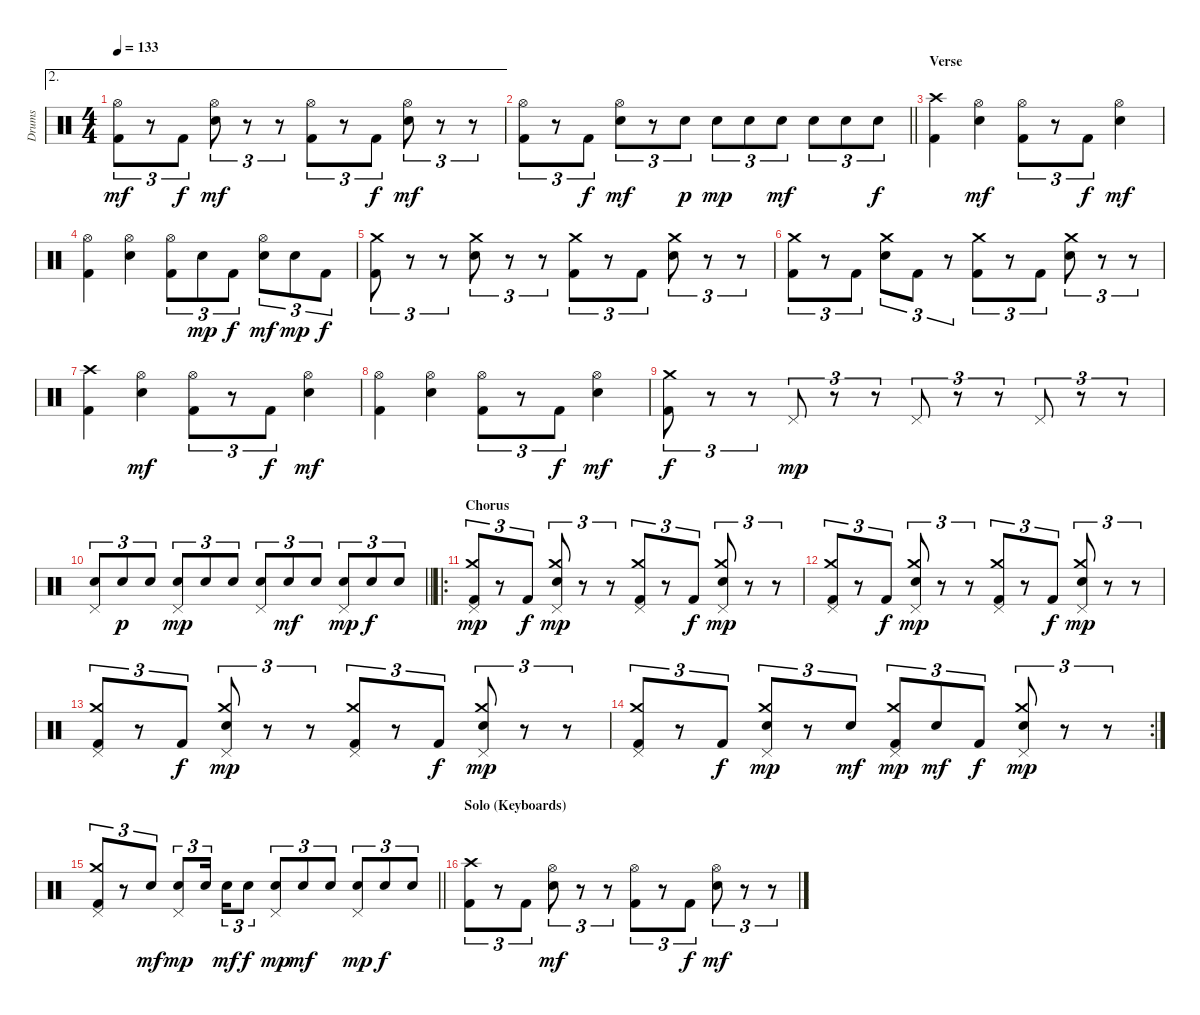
\track ("Drums" "Drums") {instrument percussion}
\staff {score}
\articulation defaults
\ae 2
\ts (4 4)
\tempo 133
\clef neutral
\ks c
("Hi-Hat (open)" "Kick (hit) 2").8{tu (3 2) dy mf} r.8{tu (3 2)} "Kick (hit) 2".8{tu (3 2) dy f} ("Hi-Hat (open)" "Electric Snare (hit)").8{tu (3 2) dy mf} r.8{tu (3 2)} r.8{tu (3 2)} ("Hi-Hat (open)" "Kick (hit) 2").8{tu (3 2)} r.8{tu (3 2)} "Kick (hit) 2".8{tu (3 2) dy f} ("Hi-Hat (open)" "Electric Snare (hit)").8{tu (3 2) dy mf} r.8{tu (3 2)} r.8{tu (3 2)} |
\barLineRight lightlight
("Hi-Hat (open)" "Kick (hit) 2").8{tu (3 2)} r.8{tu (3 2)} "Kick (hit) 2".8{tu (3 2) dy f} ("Hi-Hat (open)" "Electric Snare (hit)").8{tu (3 2) dy mf} r.8{tu (3 2)} "Electric Snare (hit)".8{tu (3 2) dy p} "Electric Snare (hit)".8{tu (3 2) dy mp} "Electric Snare (hit)".8{tu (3 2)} "Electric Snare (hit)".8{tu (3 2) dy mf} "Electric Snare (hit)".8{tu (3 2)} "Electric Snare (hit)".8{tu (3 2)} "Electric Snare (hit)".8{tu (3 2) dy f} |
\section ("" "Verse")
("Crash high (hit)" "Kick (hit) 2").4 ("Hi-Hat (open)" "Electric Snare (hit)").4{dy mf} ("Hi-Hat (open)" "Kick (hit) 2").8{tu (3 2)} r.8{tu (3 2)} "Kick (hit) 2".8{tu (3 2) dy f} ("Hi-Hat (open)" "Electric Snare (hit)").4{dy mf} |
("Hi-Hat (open)" "Kick (hit) 2").4 ("Hi-Hat (open)" "Electric Snare (hit)").4 ("Hi-Hat (open)" "Kick (hit) 2").8{tu (3 2)} "Electric Snare (hit)".8{tu (3 2) dy mp} "Kick (hit) 2".8{tu (3 2) dy f} ("Hi-Hat (open)" "Electric Snare (hit)").8{tu (3 2) dy mf} "Electric Snare (hit)".8{tu (3 2) dy mp} "Kick (hit) 2".8{tu (3 2) dy f} |
("Crash medium (hit)" "Kick (hit) 2").8{tu (3 2)} r.8{tu (3 2)} r.8{tu (3 2)} ("Crash medium (hit)" "Electric Snare (hit)").8{tu (3 2)} r.8{tu (3 2)} r.8{tu (3 2)} ("Crash medium (hit)" "Kick (hit) 2").8{tu (3 2)} r.8{tu (3 2)} "Kick (hit) 2".8{tu (3 2)} ("Crash medium (hit)" "Electric Snare (hit)").8{tu (3 2)} r.8{tu (3 2)} r.8{tu (3 2)} |
("Crash medium (hit)" "Kick (hit) 2").8{tu (3 2)} r.8{tu (3 2)} "Kick (hit) 2".8{tu (3 2)} ("Crash medium (hit)" "Electric Snare (hit)").8{tu (3 2)} "Kick (hit) 2".8{tu (3 2)} r.8{tu (3 2)} ("Crash medium (hit)" "Kick (hit) 2").8{tu (3 2)} r.8{tu (3 2)} "Kick (hit) 2".8{tu (3 2)} ("Crash medium (hit)" "Electric Snare (hit)").8{tu (3 2)} r.8{tu (3 2)} r.8{tu (3 2)} |
("Crash high (hit)" "Kick (hit) 2").4 ("Hi-Hat (open)" "Electric Snare (hit)").4{dy mf} ("Hi-Hat (open)" "Kick (hit) 2").8{tu (3 2)} r.8{tu (3 2)} "Kick (hit) 2".8{tu (3 2) dy f} ("Hi-Hat (open)" "Electric Snare (hit)").4{dy mf} |
("Hi-Hat (open)" "Kick (hit) 2").4 ("Hi-Hat (open)" "Electric Snare (hit)").4 ("Hi-Hat (open)" "Kick (hit) 2").8{tu (3 2)} r.8{tu (3 2)} "Kick (hit) 2".8{tu (3 2) dy f} ("Hi-Hat (open)" "Electric Snare (hit)").4{dy mf} |
("Crash medium (hit)" "Kick (hit) 2").8{tu (3 2) dy f} r.8{tu (3 2)} r.8{tu (3 2)} "Pedal Hi-Hat (hit)".8{tu (3 2) dy mp} r.8{tu (3 2)} r.8{tu (3 2)} "Pedal Hi-Hat (hit)".8{tu (3 2)} r.8{tu (3 2)} r.8{tu (3 2)} "Pedal Hi-Hat (hit)".8{tu (3 2)} r.8{tu (3 2)} r.8{tu (3 2)} |
\barLineRight lightlight
("Electric Snare (hit)" "Pedal Hi-Hat (hit)").8{tu (3 2)} "Electric Snare (hit)".8{tu (3 2) dy p} "Electric Snare (hit)".8{tu (3 2)} ("Electric Snare (hit)" "Pedal Hi-Hat (hit)").8{tu (3 2) dy mp} "Electric Snare (hit)".8{tu (3 2)} "Electric Snare (hit)".8{tu (3 2)} ("Electric Snare (hit)" "Pedal Hi-Hat (hit)").8{tu (3 2)} "Electric Snare (hit)".8{tu (3 2) dy mf} "Electric Snare (hit)".8{tu (3 2)} ("Electric Snare (hit)" "Pedal Hi-Hat (hit)").8{tu (3 2) dy mp} "Electric Snare (hit)".8{tu (3 2) dy f} "Electric Snare (hit)".8{tu (3 2)} |
\ro
\section ("" "Chorus")
("Crash medium (hit)" "Pedal Hi-Hat (hit)" "Kick (hit) 2").8{tu (3 2) dy mp} r.8{tu (3 2)} "Kick (hit) 2".8{tu (3 2) dy f} ("Crash medium (hit)" "Electric Snare (hit)" "Pedal Hi-Hat (hit)").8{tu (3 2) dy mp} r.8{tu (3 2)} r.8{tu (3 2)} ("Crash medium (hit)" "Pedal Hi-Hat (hit)" "Kick (hit) 2").8{tu (3 2)} r.8{tu (3 2)} "Kick (hit) 2".8{tu (3 2) dy f} ("Crash medium (hit)" "Electric Snare (hit)" "Pedal Hi-Hat (hit)").8{tu (3 2) dy mp} r.8{tu (3 2)} r.8{tu (3 2)} |
("Crash medium (hit)" "Pedal Hi-Hat (hit)" "Kick (hit) 2").8{tu (3 2)} r.8{tu (3 2)} "Kick (hit) 2".8{tu (3 2) dy f} ("Crash medium (hit)" "Electric Snare (hit)" "Pedal Hi-Hat (hit)").8{tu (3 2) dy mp} r.8{tu (3 2)} r.8{tu (3 2)} ("Crash medium (hit)" "Pedal Hi-Hat (hit)" "Kick (hit) 2").8{tu (3 2)} r.8{tu (3 2)} "Kick (hit) 2".8{tu (3 2) dy f} ("Crash medium (hit)" "Electric Snare (hit)" "Pedal Hi-Hat (hit)").8{tu (3 2) dy mp} r.8{tu (3 2)} r.8{tu (3 2)} |
("Crash medium (hit)" "Pedal Hi-Hat (hit)" "Kick (hit) 2").8{tu (3 2)} r.8{tu (3 2)} "Kick (hit) 2".8{tu (3 2) dy f} ("Crash medium (hit)" "Electric Snare (hit)" "Pedal Hi-Hat (hit)").8{tu (3 2) dy mp} r.8{tu (3 2)} r.8{tu (3 2)} ("Crash medium (hit)" "Pedal Hi-Hat (hit)" "Kick (hit) 2").8{tu (3 2)} r.8{tu (3 2)} "Kick (hit) 2".8{tu (3 2) dy f} ("Crash medium (hit)" "Electric Snare (hit)" "Pedal Hi-Hat (hit)").8{tu (3 2) dy mp} r.8{tu (3 2)} r.8{tu (3 2)} |
\rc 2
("Crash medium (hit)" "Pedal Hi-Hat (hit)" "Kick (hit) 2").8{tu (3 2)} r.8{tu (3 2)} "Kick (hit) 2".8{tu (3 2) dy f} ("Crash medium (hit)" "Electric Snare (hit)" "Pedal Hi-Hat (hit)").8{tu (3 2) dy mp} r.8{tu (3 2)} "Electric Snare (hit)".8{tu (3 2) dy mf} ("Crash medium (hit)" "Pedal Hi-Hat (hit)" "Kick (hit) 2").8{tu (3 2) dy mp} "Electric Snare (hit)".8{tu (3 2) dy mf} "Kick (hit) 2".8{tu (3 2) dy f} ("Crash medium (hit)" "Electric Snare (hit)" "Pedal Hi-Hat (hit)").8{tu (3 2) dy mp} r.8{tu (3 2)} r.8{tu (3 2)} |
\barLineRight lightlight
("Crash medium (hit)" "Pedal Hi-Hat (hit)" "Kick (hit) 2").8{tu (3 2)} r.8{tu (3 2)} "Electric Snare (hit)".8{tu (3 2) dy mf} ("Electric Snare (hit)" "Pedal Hi-Hat (hit)").8{tu (3 2) dy mp} "Electric Snare (hit)".16{tu (3 2) beam splitsecondary} "Electric Snare (hit)".16{tu (3 2) dy mf} "Electric Snare (hit)".8{tu (3 2) dy f} ("Electric Snare (hit)" "Pedal Hi-Hat (hit)").8{tu (3 2) dy mp} "Electric Snare (hit)".8{tu (3 2) dy mf} "Electric Snare (hit)".8{tu (3 2)} ("Electric Snare (hit)" "Pedal Hi-Hat (hit)").8{tu (3 2) dy mp} "Electric Snare (hit)".8{tu (3 2) dy f} "Electric Snare (hit)".8{tu (3 2)} |
\section ("" "Solo (Keyboards)")
("Crash high (hit)" "Kick (hit) 2").8{tu (3 2)} r.8{tu (3 2)} "Kick (hit) 2".8{tu (3 2)} ("Hi-Hat (open)" "Electric Snare (hit)").8{tu (3 2) dy mf} r.8{tu (3 2)} r.8{tu (3 2)} ("Hi-Hat (open)" "Kick (hit) 2").8{tu (3 2)} r.8{tu (3 2)} "Kick (hit) 2".8{tu (3 2) dy f} ("Hi-Hat (open)" "Electric Snare (hit)").8{tu (3 2) dy mf} r.8{tu (3 2)} r.8{tu (3 2)}
